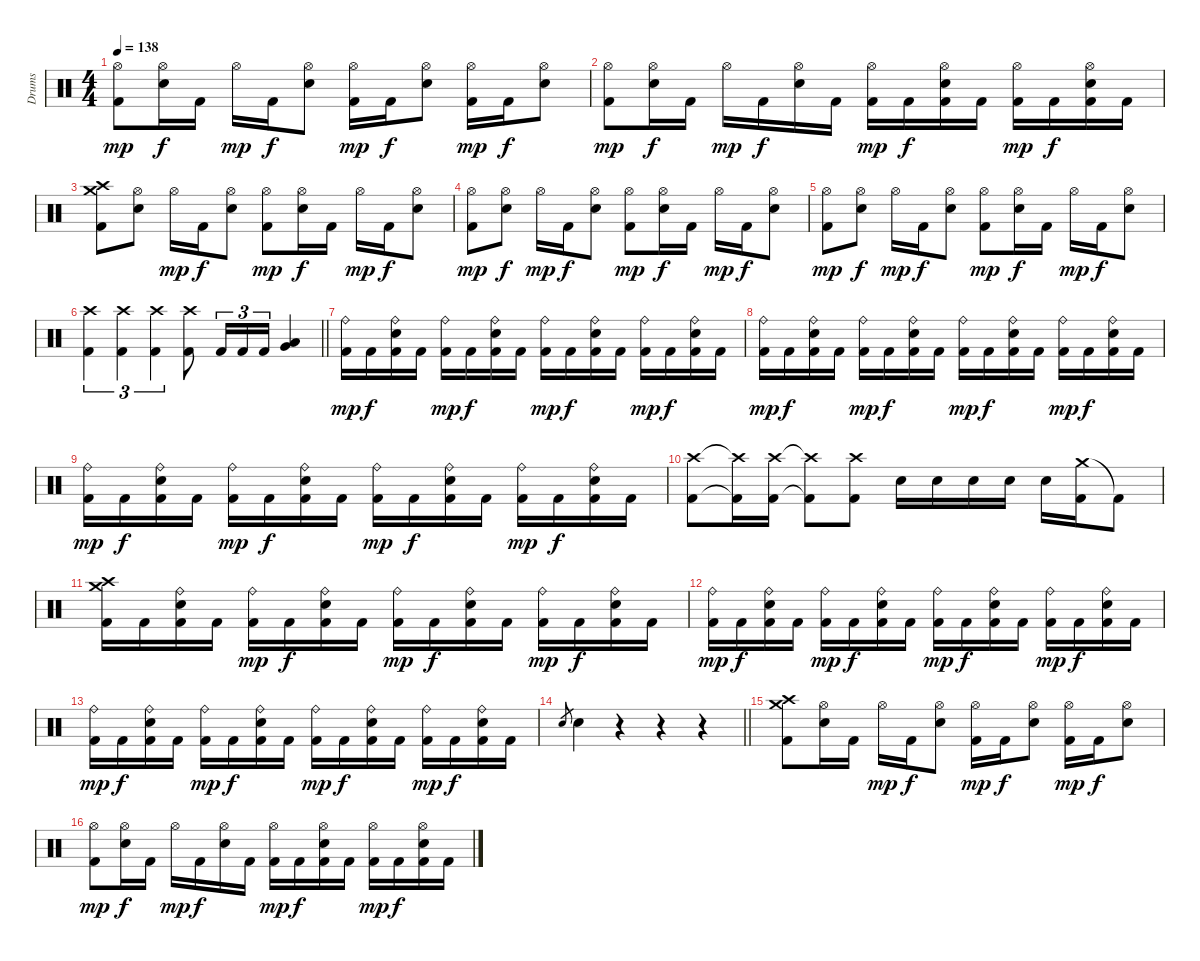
\track ("Drums" "Drums") {instrument percussion}
\staff {score}
\articulation defaults
\ts (4 4)
\tempo 138
\clef neutral
\ks c
("Hi-Hat (open)" "Kick (hit) 2").8{dy mp} ("Hi-Hat (open)" "Electric Snare (hit)").16{dy f} "Kick (hit) 2".16 "Hi-Hat (open)".16{dy mp} "Kick (hit) 2".16{dy f} ("Hi-Hat (open)" "Electric Snare (hit)").8 ("Hi-Hat (open)" "Kick (hit) 2").16{dy mp} "Kick (hit) 2".16{dy f} ("Hi-Hat (open)" "Electric Snare (hit)").8 ("Hi-Hat (open)" "Kick (hit) 2").16{dy mp} "Kick (hit) 2".16{dy f} ("Hi-Hat (open)" "Electric Snare (hit)").8 |
("Hi-Hat (open)" "Kick (hit) 2").8{dy mp} ("Hi-Hat (open)" "Electric Snare (hit)").16{dy f} "Kick (hit) 2".16 "Hi-Hat (open)".16{dy mp} "Kick (hit) 2".16{dy f} ("Hi-Hat (open)" "Electric Snare (hit)").16 "Kick (hit) 2".16 ("Hi-Hat (open)" "Kick (hit) 2").16{dy mp} "Kick (hit) 2".16{dy f} ("Hi-Hat (open)" "Electric Snare (hit)" "Kick (hit) 2").16 "Kick (hit) 2".16 ("Hi-Hat (open)" "Kick (hit) 2").16{dy mp} "Kick (hit) 2".16{dy f} ("Hi-Hat (open)" "Electric Snare (hit)" "Kick (hit) 2").16 "Kick (hit) 2".16 |
("Crash high (hit)" "Crash medium (hit)" "Kick (hit) 2").8 ("Hi-Hat (open)" "Electric Snare (hit)").8 "Hi-Hat (open)".16{dy mp} "Kick (hit) 2".16{dy f} ("Hi-Hat (open)" "Electric Snare (hit)").8 ("Hi-Hat (open)" "Kick (hit) 2").8{dy mp} ("Hi-Hat (open)" "Electric Snare (hit)").16{dy f} "Kick (hit) 2".16 "Hi-Hat (open)".16{dy mp} "Kick (hit) 2".16{dy f} ("Hi-Hat (open)" "Electric Snare (hit)").8 |
("Hi-Hat (open)" "Kick (hit) 2").8{dy mp} ("Hi-Hat (open)" "Electric Snare (hit)").8{dy f} "Hi-Hat (open)".16{dy mp} "Kick (hit) 2".16{dy f} ("Hi-Hat (open)" "Electric Snare (hit)").8 ("Hi-Hat (open)" "Kick (hit) 2").8{dy mp} ("Hi-Hat (open)" "Electric Snare (hit)").16{dy f} "Kick (hit) 2".16 "Hi-Hat (open)".16{dy mp} "Kick (hit) 2".16{dy f} ("Hi-Hat (open)" "Electric Snare (hit)").8 |
("Hi-Hat (open)" "Kick (hit) 2").8{dy mp} ("Hi-Hat (open)" "Electric Snare (hit)").8{dy f} "Hi-Hat (open)".16{dy mp} "Kick (hit) 2".16{dy f} ("Hi-Hat (open)" "Electric Snare (hit)").8 ("Hi-Hat (open)" "Kick (hit) 2").8{dy mp} ("Hi-Hat (open)" "Electric Snare (hit)").16{dy f} "Kick (hit) 2".16 "Hi-Hat (open)".16{dy mp} "Kick (hit) 2".16{dy f} ("Hi-Hat (open)" "Electric Snare (hit)").8 |
\barLineRight lightlight
("Crash high (hit)" "Kick (hit) 2").4{tu (3 2)} ("Crash high (hit)" "Kick (hit) 2").4{tu (3 2)} ("Crash high (hit)" "Kick (hit) 2").4{tu (3 2)} ("Crash high (hit)" "Kick (hit) 2").8 "Kick (hit) 2".16{tu (3 2)} "Kick (hit) 2".16{tu (3 2)} "Kick (hit) 2".16{tu (3 2)} ("Low Tom (hit)" "Very Low Tom (hit)").4 |
("Ride (bell)" "Kick (hit) 2").16{dy mp} "Kick (hit) 2".16{dy f} ("Ride (bell)" "Electric Snare (hit)" "Kick (hit) 2").16 "Kick (hit) 2".16 ("Ride (bell)" "Kick (hit) 2").16{dy mp} "Kick (hit) 2".16{dy f} ("Ride (bell)" "Electric Snare (hit)" "Kick (hit) 2").16 "Kick (hit) 2".16 ("Ride (bell)" "Kick (hit) 2").16{dy mp} "Kick (hit) 2".16{dy f} ("Ride (bell)" "Electric Snare (hit)" "Kick (hit) 2").16 "Kick (hit) 2".16 ("Ride (bell)" "Kick (hit) 2").16{dy mp} "Kick (hit) 2".16{dy f} ("Ride (bell)" "Electric Snare (hit)" "Kick (hit) 2").16 "Kick (hit) 2".16 |
("Ride (bell)" "Kick (hit) 2").16{dy mp} "Kick (hit) 2".16{dy f} ("Ride (bell)" "Electric Snare (hit)" "Kick (hit) 2").16 "Kick (hit) 2".16 ("Ride (bell)" "Kick (hit) 2").16{dy mp} "Kick (hit) 2".16{dy f} ("Ride (bell)" "Electric Snare (hit)" "Kick (hit) 2").16 "Kick (hit) 2".16 ("Ride (bell)" "Kick (hit) 2").16{dy mp} "Kick (hit) 2".16{dy f} ("Ride (bell)" "Electric Snare (hit)" "Kick (hit) 2").16 "Kick (hit) 2".16 ("Ride (bell)" "Kick (hit) 2").16{dy mp} "Kick (hit) 2".16{dy f} ("Ride (bell)" "Electric Snare (hit)" "Kick (hit) 2").16 "Kick (hit) 2".16 |
("Ride (bell)" "Kick (hit) 2").16{dy mp} "Kick (hit) 2".16{dy f} ("Ride (bell)" "Electric Snare (hit)" "Kick (hit) 2").16 "Kick (hit) 2".16 ("Ride (bell)" "Kick (hit) 2").16{dy mp} "Kick (hit) 2".16{dy f} ("Ride (bell)" "Electric Snare (hit)" "Kick (hit) 2").16 "Kick (hit) 2".16 ("Ride (bell)" "Kick (hit) 2").16{dy mp} "Kick (hit) 2".16{dy f} ("Ride (bell)" "Electric Snare (hit)" "Kick (hit) 2").16 "Kick (hit) 2".16 ("Ride (bell)" "Kick (hit) 2").16{dy mp} "Kick (hit) 2".16{dy f} ("Ride (bell)" "Electric Snare (hit)" "Kick (hit) 2").16 "Kick (hit) 2".16 |
("Crash high (hit)" "Kick (hit) 2").8 ("Crash high (hit)"{t} "Kick (hit) 2"{t}).16 ("Crash high (hit)" "Kick (hit) 2").16 ("Crash high (hit)"{t} "Kick (hit) 2"{t}).8 ("Crash high (hit)" "Kick (hit) 2").8 "Electric Snare (hit)".16 "Electric Snare (hit)".16 "Electric Snare (hit)".16 "Electric Snare (hit)".16 "Electric Snare (hit)".16 ("Crash medium (hit)" "Kick (hit) 2").16 "Kick (hit) 2"{t}.8 |
("Crash high (hit)" "Crash medium (hit)" "Kick (hit) 2").16 "Kick (hit) 2".16 ("Ride (bell)" "Electric Snare (hit)" "Kick (hit) 2").16 "Kick (hit) 2".16 ("Ride (bell)" "Kick (hit) 2").16{dy mp} "Kick (hit) 2".16{dy f} ("Ride (bell)" "Electric Snare (hit)" "Kick (hit) 2").16 "Kick (hit) 2".16 ("Ride (bell)" "Kick (hit) 2").16{dy mp} "Kick (hit) 2".16{dy f} ("Ride (bell)" "Electric Snare (hit)" "Kick (hit) 2").16 "Kick (hit) 2".16 ("Ride (bell)" "Kick (hit) 2").16{dy mp} "Kick (hit) 2".16{dy f} ("Ride (bell)" "Electric Snare (hit)" "Kick (hit) 2").16 "Kick (hit) 2".16 |
("Ride (bell)" "Kick (hit) 2").16{dy mp} "Kick (hit) 2".16{dy f} ("Ride (bell)" "Electric Snare (hit)" "Kick (hit) 2").16 "Kick (hit) 2".16 ("Ride (bell)" "Kick (hit) 2").16{dy mp} "Kick (hit) 2".16{dy f} ("Ride (bell)" "Electric Snare (hit)" "Kick (hit) 2").16 "Kick (hit) 2".16 ("Ride (bell)" "Kick (hit) 2").16{dy mp} "Kick (hit) 2".16{dy f} ("Ride (bell)" "Electric Snare (hit)" "Kick (hit) 2").16 "Kick (hit) 2".16 ("Ride (bell)" "Kick (hit) 2").16{dy mp} "Kick (hit) 2".16{dy f} ("Ride (bell)" "Electric Snare (hit)" "Kick (hit) 2").16 "Kick (hit) 2".16 |
("Ride (bell)" "Kick (hit) 2").16{dy mp} "Kick (hit) 2".16{dy f} ("Ride (bell)" "Electric Snare (hit)" "Kick (hit) 2").16 "Kick (hit) 2".16 ("Ride (bell)" "Kick (hit) 2").16{dy mp} "Kick (hit) 2".16{dy f} ("Ride (bell)" "Electric Snare (hit)" "Kick (hit) 2").16 "Kick (hit) 2".16 ("Ride (bell)" "Kick (hit) 2").16{dy mp} "Kick (hit) 2".16{dy f} ("Ride (bell)" "Electric Snare (hit)" "Kick (hit) 2").16 "Kick (hit) 2".16 ("Ride (bell)" "Kick (hit) 2").16{dy mp} "Kick (hit) 2".16{dy f} ("Ride (bell)" "Electric Snare (hit)" "Kick (hit) 2").16 "Kick (hit) 2".16 |
\barLineRight lightlight "Electric Snare (hit)".8{gr} "Electric Snare (hit)".4
r.4 r.4 r.4 |
("Crash high (hit)" "Crash medium (hit)" "Kick (hit) 2").8 ("Hi-Hat (open)" "Electric Snare (hit)").16 "Kick (hit) 2".16 "Hi-Hat (open)".16{dy mp} "Kick (hit) 2".16{dy f} ("Hi-Hat (open)" "Electric Snare (hit)").8 ("Hi-Hat (open)" "Kick (hit) 2").16{dy mp} "Kick (hit) 2".16{dy f} ("Hi-Hat (open)" "Electric Snare (hit)").8 ("Hi-Hat (open)" "Kick (hit) 2").16{dy mp} "Kick (hit) 2".16{dy f} ("Hi-Hat (open)" "Electric Snare (hit)").8 |
("Hi-Hat (open)" "Kick (hit) 2").8{dy mp} ("Hi-Hat (open)" "Electric Snare (hit)").16{dy f} "Kick (hit) 2".16 "Hi-Hat (open)".16{dy mp} "Kick (hit) 2".16{dy f} ("Hi-Hat (open)" "Electric Snare (hit)").16 "Kick (hit) 2".16 ("Hi-Hat (open)" "Kick (hit) 2").16{dy mp} "Kick (hit) 2".16{dy f} ("Hi-Hat (open)" "Electric Snare (hit)" "Kick (hit) 2").16 "Kick (hit) 2".16 ("Hi-Hat (open)" "Kick (hit) 2").16{dy mp} "Kick (hit) 2".16{dy f} ("Hi-Hat (open)" "Electric Snare (hit)" "Kick (hit) 2").16 "Kick (hit) 2".16
